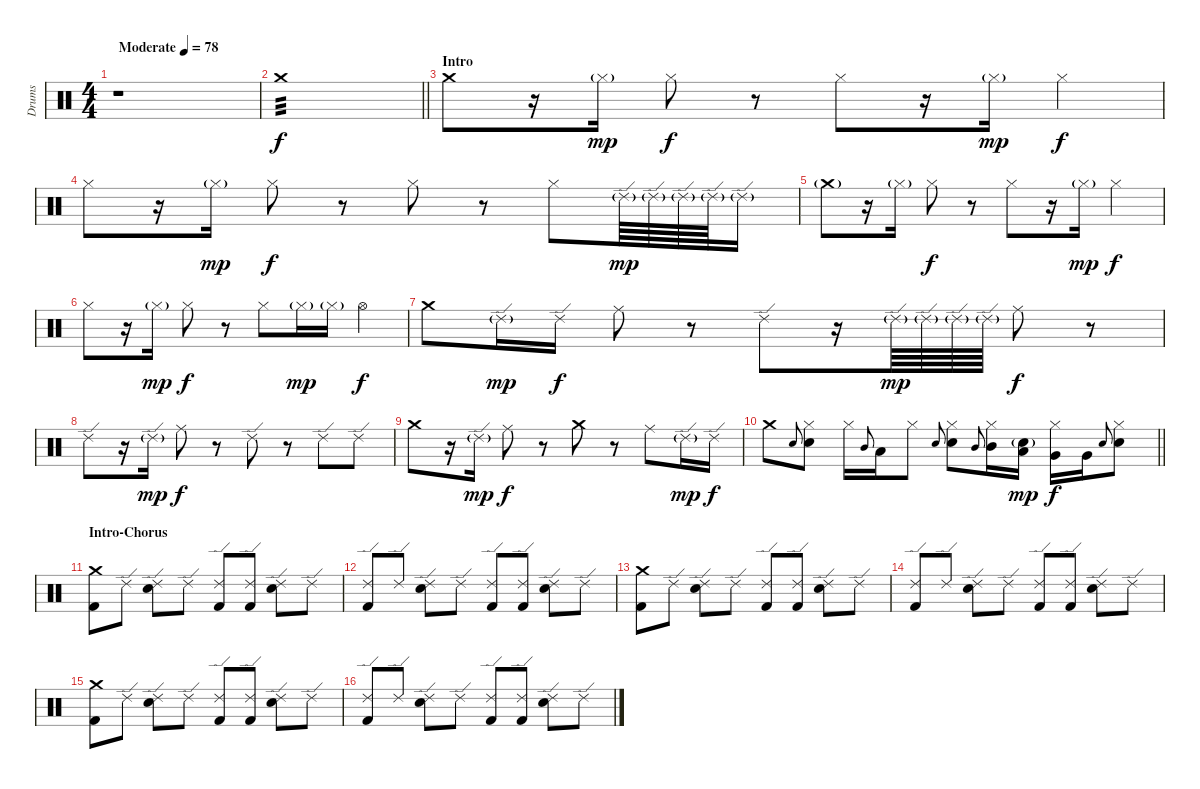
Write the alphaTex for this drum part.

\track ("Drums" "Drums") {instrument percussion}
\staff {score}
\articulation defaults
\ts (4 4)
\tempo (78 "Moderate")
\clef neutral
\ks c
r.1{dy f volume 0} |
\barLineRight lightlight "Crash medium (hit)".1{tp 3 volume 13}
|
\section ("" "Intro")
"Crash medium (hit)".8 r.16 "Hi-Hat (closed)"{g}.16{dy mp} "Hi-Hat (closed)".8{dy f} r.8 "Hi-Hat (closed)".8 r.16 "Hi-Hat (closed)"{g}.16{dy mp} "Hi-Hat (closed)".4{dy f} |
"Hi-Hat (closed)".8 r.16 "Hi-Hat (closed)"{g}.16{dy mp} "Hi-Hat (closed)".8{dy f} r.8 "Hi-Hat (closed)".8 r.8 "Hi-Hat (closed)".8 "Ride (edge) 2"{g}.64{dy mp} "Ride (edge) 2"{g}.64 "Ride (edge) 2"{g}.64 "Ride (edge) 2"{g}.64 "Ride (edge) 2"{g}.16 |
"Crash medium (hit)"{g}.8 r.16 "Hi-Hat (closed)"{g}.16 "Hi-Hat (closed)".8{dy f} r.8 "Hi-Hat (closed)".8 r.16 "Hi-Hat (closed)"{g}.16{dy mp} "Hi-Hat (closed)".4{dy f} |
"Hi-Hat (closed)".8 r.16 "Hi-Hat (closed)"{g}.16{dy mp} "Hi-Hat (closed)".8{dy f} r.8 "Hi-Hat (closed)".8 "Hi-Hat (closed)"{g}.16{dy mp} "Hi-Hat (closed)"{g}.16 "Hi-Hat (open)".4{dy f} |
"Crash medium (hit)".8 "Ride (edge) 2"{g}.16{dy mp} "Ride (edge) 2".16{dy f} "Ride (middle)".8 r.8 "Ride (edge) 2".8 r.16 "Ride (edge) 2"{g}.64{dy mp} "Ride (edge) 2"{g}.64 "Ride (edge) 2"{g}.64 "Ride (edge) 2"{g}.64 "Ride (middle)".8{dy f} r.8 |
"Ride (edge) 2".8 r.16 "Ride (edge) 2"{g}.16{dy mp} "Ride (middle)".8{dy f} r.8 "Ride (edge) 2".8 r.8 "Ride (edge) 2".8 "Ride (edge) 2".8 |
"Crash medium (hit)".8 r.16 "Ride (edge) 2"{g}.16{dy mp} "Ride (middle)".8{dy f} r.8 "Crash medium (hit)".8 r.8 "Ride (middle)".8 "Ride (edge) 2"{g}.16{dy mp} "Ride (edge) 2".16{dy f} |
\barLineRight lightlight "Crash medium (hit)".8 "Electric Snare (hit)".8{gr onbeat}
("Hi-Hat (closed)" "Electric Snare (hit)").8 "Hi-Hat (closed)".16 "Mid Tom (hit)".8{gr onbeat} "Low Tom (hit)".16 "Hi-Hat (closed)".8 "Electric Snare (hit)".8{gr onbeat} ("Hi-Hat (closed)" "Electric Snare (hit)").8 "Mid Tom (hit)".8{gr onbeat} ("Hi-Hat (closed)" "Mid Tom (hit)").16 ("Electric Snare (hit)"{g} "Low Tom (hit)").16{dy mp} ("Hi-Hat (closed)" "Very Low Tom (hit)").16{dy f} "Very Low Tom (hit)".16 "Electric Snare (hit)".8{gr onbeat} ("Hi-Hat (closed)" "Electric Snare (hit)").8 |
\section ("" "Intro-Chorus")
("Crash medium (hit)" "Kick (hit) 2").8 "Ride (edge) 2".8 ("Ride (edge) 2" "Electric Snare (hit)").8 "Ride (edge) 2".8 ("Ride (edge) 2" "Kick (hit) 2").8 ("Ride (edge) 2" "Kick (hit) 2").8 ("Ride (edge) 2" "Electric Snare (hit)").8 "Ride (edge) 2".8 |
("Ride (edge) 2" "Kick (hit) 2").8 "Ride (edge) 2".8 ("Ride (edge) 2" "Electric Snare (hit)").8 "Ride (edge) 2".8 ("Ride (edge) 2" "Kick (hit) 2").8 ("Ride (edge) 2" "Kick (hit) 2").8 ("Ride (edge) 2" "Electric Snare (hit)").8 "Ride (edge) 2".8 |
("Crash medium (hit)" "Kick (hit) 2").8 "Ride (edge) 2".8 ("Ride (edge) 2" "Electric Snare (hit)").8 "Ride (edge) 2".8 ("Ride (edge) 2" "Kick (hit) 2").8 ("Ride (edge) 2" "Kick (hit) 2").8 ("Ride (edge) 2" "Electric Snare (hit)").8 "Ride (edge) 2".8 |
("Ride (edge) 2" "Kick (hit) 2").8 "Ride (edge) 2".8 ("Ride (edge) 2" "Electric Snare (hit)").8 "Ride (edge) 2".8 ("Ride (edge) 2" "Kick (hit) 2").8 ("Ride (edge) 2" "Kick (hit) 2").8 ("Ride (edge) 2" "Electric Snare (hit)").8 "Ride (edge) 2".8 |
("Crash medium (hit)" "Kick (hit) 2").8 "Ride (edge) 2".8 ("Ride (edge) 2" "Electric Snare (hit)").8 "Ride (edge) 2".8 ("Ride (edge) 2" "Kick (hit) 2").8 ("Ride (edge) 2" "Kick (hit) 2").8 ("Ride (edge) 2" "Electric Snare (hit)").8 "Ride (edge) 2".8 |
("Ride (edge) 2" "Kick (hit) 2").8 "Ride (edge) 2".8 ("Ride (edge) 2" "Electric Snare (hit)").8 "Ride (edge) 2".8 ("Ride (edge) 2" "Kick (hit) 2").8 ("Ride (edge) 2" "Kick (hit) 2").8 ("Ride (edge) 2" "Electric Snare (hit)").8 "Ride (edge) 2".8
